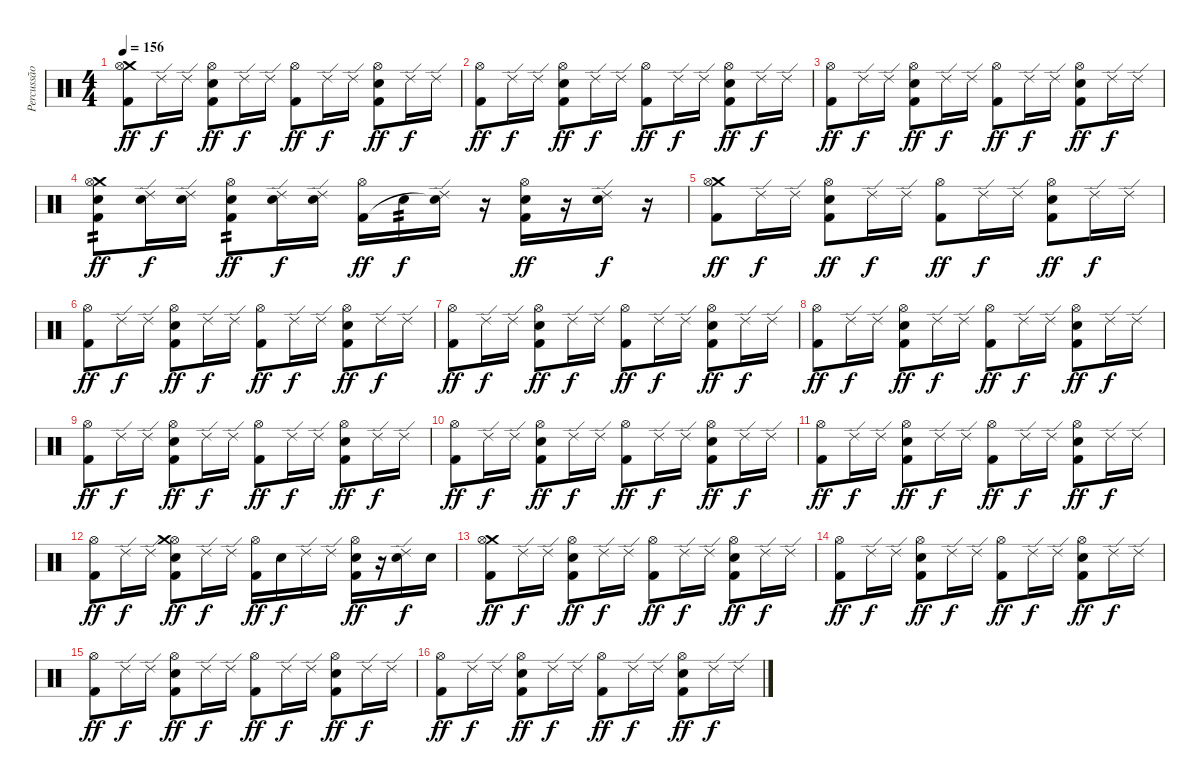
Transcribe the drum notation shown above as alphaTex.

\track ("Percussão" "Percussão") {instrument percussion}
\staff {score}
\articulation defaults
\ts (4 4)
\tempo 156
\clef neutral
\ks c
("Crash medium (hit)" "Hi-Hat (open)" "Kick (hit) 2").8{dy ff} "Ride (edge) 2".16{dy f} "Ride (edge) 2".16 ("Hi-Hat (open)" "Snare (hit) 2" "Kick (hit) 2").8{dy ff} "Ride (edge) 2".16{dy f} "Ride (edge) 2".16 ("Hi-Hat (open)" "Kick (hit) 2").8{dy ff} "Ride (edge) 2".16{dy f} "Ride (edge) 2".16 ("Hi-Hat (open)" "Snare (hit) 2" "Kick (hit) 2").8{dy ff} "Ride (edge) 2".16{dy f} "Ride (edge) 2".16 |
("Hi-Hat (open)" "Kick (hit) 2").8{dy ff} "Ride (edge) 2".16{dy f} "Ride (edge) 2".16 ("Hi-Hat (open)" "Snare (hit) 2" "Kick (hit) 2").8{dy ff} "Ride (edge) 2".16{dy f} "Ride (edge) 2".16 ("Hi-Hat (open)" "Kick (hit) 2").8{dy ff} "Ride (edge) 2".16{dy f} "Ride (edge) 2".16 ("Hi-Hat (open)" "Snare (hit) 2" "Kick (hit) 2").8{dy ff} "Ride (edge) 2".16{dy f} "Ride (edge) 2".16 |
("Hi-Hat (open)" "Kick (hit) 2").8{dy ff} "Ride (edge) 2".16{dy f} "Ride (edge) 2".16 ("Hi-Hat (open)" "Snare (hit) 2" "Kick (hit) 2").8{dy ff} "Ride (edge) 2".16{dy f} "Ride (edge) 2".16 ("Hi-Hat (open)" "Kick (hit) 2").8{dy ff} "Ride (edge) 2".16{dy f} "Ride (edge) 2".16 ("Hi-Hat (open)" "Snare (hit) 2" "Kick (hit) 2").8{dy ff} "Ride (edge) 2".16{dy f} "Ride (edge) 2".16 |
("Crash medium (hit)" "Hi-Hat (open)" "Snare (hit) 2" "Kick (hit) 2").8{tp 2 dy ff} ("Ride (edge) 2" "Snare (hit) 2").16{dy f} ("Ride (edge) 2" "Snare (hit) 2").16 ("Hi-Hat (open)" "Snare (hit) 2" "Kick (hit) 2").8{tp 2 dy ff} ("Ride (edge) 2" "Snare (hit) 2").16{dy f} ("Ride (edge) 2" "Snare (hit) 2").16 ("Hi-Hat (open)" "Kick (hit) 2").16{dy ff} "Snare (hit) 2".16{tp 2 dy f} ("Ride (edge) 2" "Snare (hit)"{t}).16 r.16 ("Hi-Hat (open)" "Snare (hit) 2" "Kick (hit) 2").16{dy ff} r.16 ("Ride (edge) 2" "Snare (hit) 2").16{dy f} r.16 |
("Crash medium (hit)" "Hi-Hat (open)" "Kick (hit) 2").8{dy ff} "Ride (edge) 2".16{dy f} "Ride (edge) 2".16 ("Hi-Hat (open)" "Snare (hit) 2" "Kick (hit) 2").8{dy ff} "Ride (edge) 2".16{dy f} "Ride (edge) 2".16 ("Hi-Hat (open)" "Kick (hit) 2").8{dy ff} "Ride (edge) 2".16{dy f} "Ride (edge) 2".16 ("Hi-Hat (open)" "Snare (hit) 2" "Kick (hit) 2").8{dy ff} "Ride (edge) 2".16{dy f} "Ride (edge) 2".16 |
("Hi-Hat (open)" "Kick (hit) 2").8{dy ff} "Ride (edge) 2".16{dy f} "Ride (edge) 2".16 ("Hi-Hat (open)" "Snare (hit) 2" "Kick (hit) 2").8{dy ff} "Ride (edge) 2".16{dy f} "Ride (edge) 2".16 ("Hi-Hat (open)" "Kick (hit) 2").8{dy ff} "Ride (edge) 2".16{dy f} "Ride (edge) 2".16 ("Hi-Hat (open)" "Snare (hit) 2" "Kick (hit) 2").8{dy ff} "Ride (edge) 2".16{dy f} "Ride (edge) 2".16 |
("Hi-Hat (open)" "Kick (hit) 2").8{dy ff} "Ride (edge) 2".16{dy f} "Ride (edge) 2".16 ("Hi-Hat (open)" "Snare (hit) 2" "Kick (hit) 2").8{dy ff} "Ride (edge) 2".16{dy f} "Ride (edge) 2".16 ("Hi-Hat (open)" "Kick (hit) 2").8{dy ff} "Ride (edge) 2".16{dy f} "Ride (edge) 2".16 ("Hi-Hat (open)" "Snare (hit) 2" "Kick (hit) 2").8{dy ff} "Ride (edge) 2".16{dy f} "Ride (edge) 2".16 |
("Hi-Hat (open)" "Kick (hit) 2").8{dy ff} "Ride (edge) 2".16{dy f} "Ride (edge) 2".16 ("Hi-Hat (open)" "Snare (hit) 2" "Kick (hit) 2").8{dy ff} "Ride (edge) 2".16{dy f} "Ride (edge) 2".16 ("Hi-Hat (open)" "Kick (hit) 2").8{dy ff} "Ride (edge) 2".16{dy f} "Ride (edge) 2".16 ("Hi-Hat (open)" "Snare (hit) 2" "Kick (hit) 2").8{dy ff} "Ride (edge) 2".16{dy f} "Ride (edge) 2".16 |
("Hi-Hat (open)" "Kick (hit) 2").8{dy ff} "Ride (edge) 2".16{dy f} "Ride (edge) 2".16 ("Hi-Hat (open)" "Snare (hit) 2" "Kick (hit) 2").8{dy ff} "Ride (edge) 2".16{dy f} "Ride (edge) 2".16 ("Hi-Hat (open)" "Kick (hit) 2").8{dy ff} "Ride (edge) 2".16{dy f} "Ride (edge) 2".16 ("Hi-Hat (open)" "Snare (hit) 2" "Kick (hit) 2").8{dy ff} "Ride (edge) 2".16{dy f} "Ride (edge) 2".16 |
("Hi-Hat (open)" "Kick (hit) 2").8{dy ff} "Ride (edge) 2".16{dy f} "Ride (edge) 2".16 ("Hi-Hat (open)" "Snare (hit) 2" "Kick (hit) 2").8{dy ff} "Ride (edge) 2".16{dy f} "Ride (edge) 2".16 ("Hi-Hat (open)" "Kick (hit) 2").8{dy ff} "Ride (edge) 2".16{dy f} "Ride (edge) 2".16 ("Hi-Hat (open)" "Snare (hit) 2" "Kick (hit) 2").8{dy ff} "Ride (edge) 2".16{dy f} "Ride (edge) 2".16 |
("Hi-Hat (open)" "Kick (hit) 2").8{dy ff} "Ride (edge) 2".16{dy f} "Ride (edge) 2".16 ("Hi-Hat (open)" "Snare (hit) 2" "Kick (hit) 2").8{dy ff} "Ride (edge) 2".16{dy f} "Ride (edge) 2".16 ("Hi-Hat (open)" "Kick (hit) 2").8{dy ff} "Ride (edge) 2".16{dy f} "Ride (edge) 2".16 ("Hi-Hat (open)" "Snare (hit) 2" "Kick (hit) 2").8{dy ff} "Ride (edge) 2".16{dy f} "Ride (edge) 2".16 |
("Hi-Hat (open)" "Kick (hit) 2").8{dy ff} "Ride (edge) 2".16{dy f} "Ride (edge) 2".16 ("Hi-Hat (open)" "Crash medium (hit)" "Snare (hit) 2" "Kick (hit) 2").8{dy ff} "Ride (edge) 2".16{dy f} "Ride (edge) 2".16 ("Hi-Hat (open)" "Kick (hit) 2").16{dy ff} "Snare (hit) 2".16{dy f} "Ride (edge) 2".16 "Ride (edge) 2".16 ("Hi-Hat (open)" "Snare (hit) 2" "Kick (hit) 2").16{dy ff} r.16 ("Ride (edge) 2" "Snare (hit) 2").16{dy f} "Snare (hit) 2".16 |
("Crash medium (hit)" "Hi-Hat (open)" "Kick (hit) 2").8{dy ff} "Ride (edge) 2".16{dy f} "Ride (edge) 2".16 ("Hi-Hat (open)" "Snare (hit) 2" "Kick (hit) 2").8{dy ff} "Ride (edge) 2".16{dy f} "Ride (edge) 2".16 ("Hi-Hat (open)" "Kick (hit) 2").8{dy ff} "Ride (edge) 2".16{dy f} "Ride (edge) 2".16 ("Hi-Hat (open)" "Snare (hit) 2" "Kick (hit) 2").8{dy ff} "Ride (edge) 2".16{dy f} "Ride (edge) 2".16 |
("Hi-Hat (open)" "Kick (hit) 2").8{dy ff} "Ride (edge) 2".16{dy f} "Ride (edge) 2".16 ("Hi-Hat (open)" "Snare (hit) 2" "Kick (hit) 2").8{dy ff} "Ride (edge) 2".16{dy f} "Ride (edge) 2".16 ("Hi-Hat (open)" "Kick (hit) 2").8{dy ff} "Ride (edge) 2".16{dy f} "Ride (edge) 2".16 ("Hi-Hat (open)" "Snare (hit) 2" "Kick (hit) 2").8{dy ff} "Ride (edge) 2".16{dy f} "Ride (edge) 2".16 |
("Hi-Hat (open)" "Kick (hit) 2").8{dy ff} "Ride (edge) 2".16{dy f} "Ride (edge) 2".16 ("Hi-Hat (open)" "Snare (hit) 2" "Kick (hit) 2").8{dy ff} "Ride (edge) 2".16{dy f} "Ride (edge) 2".16 ("Hi-Hat (open)" "Kick (hit) 2").8{dy ff} "Ride (edge) 2".16{dy f} "Ride (edge) 2".16 ("Hi-Hat (open)" "Snare (hit) 2" "Kick (hit) 2").8{dy ff} "Ride (edge) 2".16{dy f} "Ride (edge) 2".16 |
("Hi-Hat (open)" "Kick (hit) 2").8{dy ff} "Ride (edge) 2".16{dy f} "Ride (edge) 2".16 ("Hi-Hat (open)" "Snare (hit) 2" "Kick (hit) 2").8{dy ff} "Ride (edge) 2".16{dy f} "Ride (edge) 2".16 ("Hi-Hat (open)" "Kick (hit) 2").8{dy ff} "Ride (edge) 2".16{dy f} "Ride (edge) 2".16 ("Hi-Hat (open)" "Snare (hit) 2" "Kick (hit) 2").8{dy ff} "Ride (edge) 2".16{dy f} "Ride (edge) 2".16
